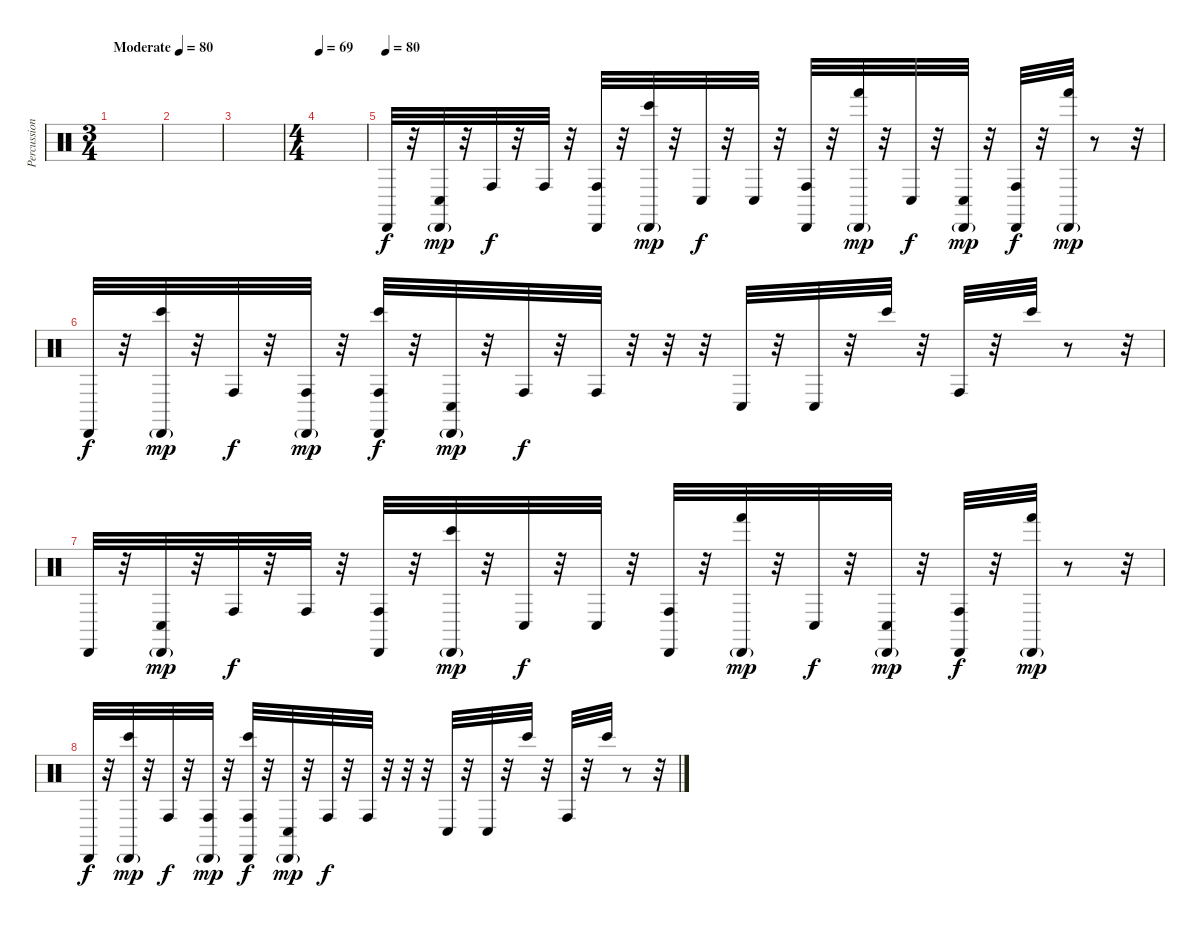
\track ("Percussion" "Percussion") {instrument percussion}
\staff {score}
\articulation defaults
\ts (3 4)
\tempo (80 "Moderate")
\clef neutral
\ks c
|
|
|
\ts (4 4)
\tempo 69
|
\tempo (80)
"Cabasa (hit)".32 r.32 ("Cabasa (hit)"{g} "Conga low (hit)").32{dy mp} r.32 "Conga high (hit)".32{dy f} r.32 "Conga high (hit)".32 r.32 ("Cabasa (hit)" "Conga high (hit)").32 r.32 ("Cabasa (hit)"{g} "Bongo High (hit)").32{dy mp} r.32 "Conga low (hit)".32{dy f} r.32 "Conga low (hit)".32 r.32 ("Cabasa (hit)" "Conga high (hit)").32 r.32 ("Cabasa (hit)"{g} "Hand (hit)").32{dy mp} r.32 "Conga low (hit)".32{dy f} r.32 ("Cabasa (hit)"{g} "Conga low (hit)").32{dy mp} r.32 ("Cabasa (hit)" "Conga high (hit)").32{dy f} r.32 ("Cabasa (hit)"{g} "Hand (hit)").32{dy mp} r.8 r.32 |
"Cabasa (hit)".32{dy f} r.32 ("Cabasa (hit)"{g} "Bongo High (hit)").32{dy mp} r.32 "Conga high (hit)".32{dy f} r.32 ("Cabasa (hit)"{g} "Conga high (hit)").32{dy mp} r.32 ("Cabasa (hit)" "Conga high (hit)" "Bongo High (hit)").32{dy f} r.32 ("Cabasa (hit)"{g} "Conga low (hit)").32{dy mp} r.32 "Conga high (hit)".32{dy f} r.32 "Conga high (hit)".32 r.32 r.32 r.32 "Conga low (hit)".32 r.32 "Conga low (hit)".32 r.32 "Bongo High (hit)".32 r.32 "Conga high (hit)".32 r.32 "Bongo High (hit)".32 r.8 r.32 |
"Cabasa (hit)".32 r.32 ("Cabasa (hit)"{g} "Conga low (hit)").32{dy mp} r.32 "Conga high (hit)".32{dy f} r.32 "Conga high (hit)".32 r.32 ("Cabasa (hit)" "Conga high (hit)").32 r.32 ("Cabasa (hit)"{g} "Bongo High (hit)").32{dy mp} r.32 "Conga low (hit)".32{dy f} r.32 "Conga low (hit)".32 r.32 ("Cabasa (hit)" "Conga high (hit)").32 r.32 ("Cabasa (hit)"{g} "Hand (hit)").32{dy mp} r.32 "Conga low (hit)".32{dy f} r.32 ("Cabasa (hit)"{g} "Conga low (hit)").32{dy mp} r.32 ("Cabasa (hit)" "Conga high (hit)").32{dy f} r.32 ("Cabasa (hit)"{g} "Hand (hit)").32{dy mp} r.8 r.32 |
"Cabasa (hit)".32{dy f} r.32 ("Cabasa (hit)"{g} "Bongo High (hit)").32{dy mp} r.32 "Conga high (hit)".32{dy f} r.32 ("Cabasa (hit)"{g} "Conga high (hit)").32{dy mp} r.32 ("Cabasa (hit)" "Conga high (hit)" "Bongo High (hit)").32{dy f} r.32 ("Cabasa (hit)"{g} "Conga low (hit)").32{dy mp} r.32 "Conga high (hit)".32{dy f} r.32 "Conga high (hit)".32 r.32 r.32 r.32 "Conga low (hit)".32 r.32 "Conga low (hit)".32 r.32 "Bongo High (hit)".32 r.32 "Conga high (hit)".32 r.32 "Bongo High (hit)".32 r.8 r.32
